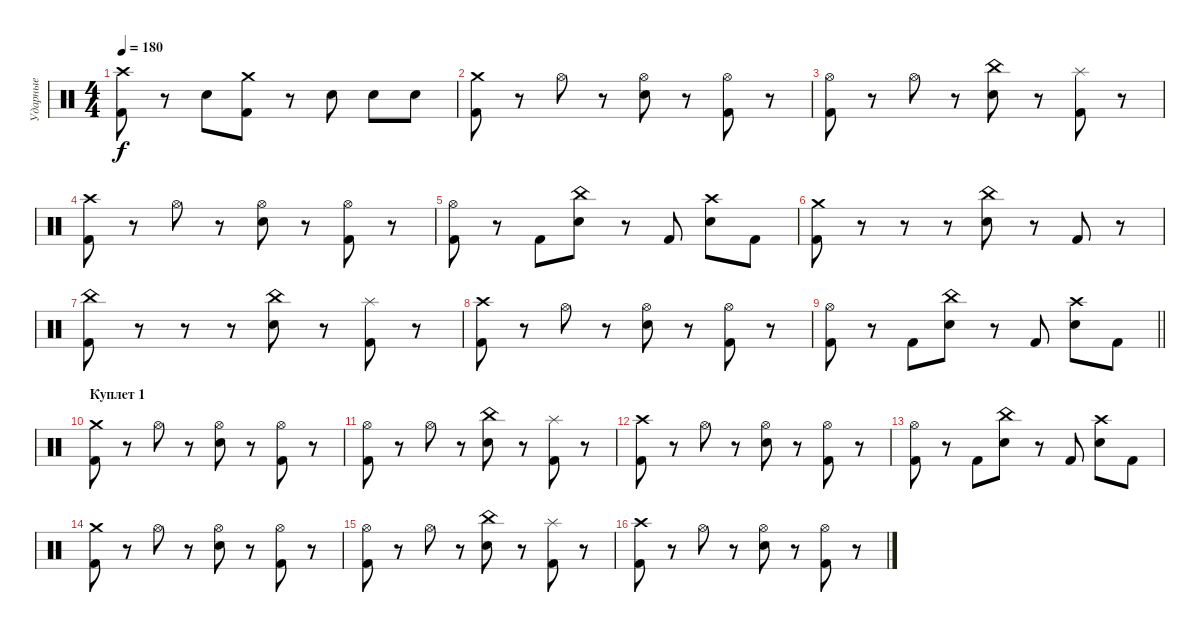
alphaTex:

\track ("Ударные" "Ударные") {instrument percussion}
\staff {score}
\articulation defaults
\ts (4 4)
\tempo 180
\clef neutral
\ks c
("Kick (hit) 2" "Crash high (hit)").8{dy f} r.8 "Electric Snare (hit)".8 ("Kick (hit) 2" "Crash medium (hit)").8 r.8 "Electric Snare (hit)".8 "Electric Snare (hit)".8 "Electric Snare (hit)".8 |
("Kick (hit) 2" "Crash medium (hit)").8 r.8 "Hi-Hat (open)".8 r.8 ("Electric Snare (hit)" "Hi-Hat (open)").8 r.8 ("Kick (hit) 2" "Hi-Hat (open)").8 r.8 |
("Kick (hit) 2" "Hi-Hat (open)").8 r.8 "Hi-Hat (open)".8 r.8 ("Electric Snare (hit)" "China (hit)").8 r.8 ("Kick (hit) 2" "Splash (hit)").8 r.8 |
("Kick (hit) 2" "Crash high (hit)").8 r.8 "Hi-Hat (open)".8 r.8 ("Electric Snare (hit)" "Hi-Hat (open)").8 r.8 ("Kick (hit) 2" "Hi-Hat (open)").8 r.8 |
("Kick (hit) 2" "Hi-Hat (open)").8 r.8 "Kick (hit) 2".8 ("Electric Snare (hit)" "China (hit)").8 r.8 "Kick (hit) 2".8 ("Electric Snare (hit)" "Crash high (hit)").8 "Kick (hit) 2".8 |
("Kick (hit) 2" "Crash medium (hit)").8 r.8 r.8 r.8 ("Electric Snare (hit)" "China (hit)").8 r.8 "Kick (hit) 2".8 r.8 |
("Kick (hit) 2" "China (hit)").8 r.8 r.8 r.8 ("Electric Snare (hit)" "China (hit)").8 r.8 ("Kick (hit) 2" "Splash (hit)").8 r.8 |
("Kick (hit) 2" "Crash high (hit)").8 r.8 "Hi-Hat (open)".8 r.8 ("Electric Snare (hit)" "Hi-Hat (open)").8 r.8 ("Kick (hit) 2" "Hi-Hat (open)").8 r.8 |
\barLineRight lightlight
("Kick (hit) 2" "Hi-Hat (open)").8 r.8 "Kick (hit) 2".8 ("Electric Snare (hit)" "China (hit)").8 r.8 "Kick (hit) 2".8 ("Electric Snare (hit)" "Crash high (hit)").8 "Kick (hit) 2".8 |
\section ("" "Куплет 1")
("Kick (hit) 2" "Crash medium (hit)").8 r.8 "Hi-Hat (open)".8 r.8 ("Electric Snare (hit)" "Hi-Hat (open)").8 r.8 ("Kick (hit) 2" "Hi-Hat (open)").8 r.8 |
("Kick (hit) 2" "Hi-Hat (open)").8 r.8 "Hi-Hat (open)".8 r.8 ("Electric Snare (hit)" "China (hit)").8 r.8 ("Kick (hit) 2" "Splash (hit)").8 r.8 |
("Kick (hit) 2" "Crash high (hit)").8 r.8 "Hi-Hat (open)".8 r.8 ("Electric Snare (hit)" "Hi-Hat (open)").8 r.8 ("Kick (hit) 2" "Hi-Hat (open)").8 r.8 |
("Kick (hit) 2" "Hi-Hat (open)").8 r.8 "Kick (hit) 2".8 ("Electric Snare (hit)" "China (hit)").8 r.8 "Kick (hit) 2".8 ("Electric Snare (hit)" "Crash high (hit)").8 "Kick (hit) 2".8 |
("Kick (hit) 2" "Crash medium (hit)").8 r.8 "Hi-Hat (open)".8 r.8 ("Electric Snare (hit)" "Hi-Hat (open)").8 r.8 ("Kick (hit) 2" "Hi-Hat (open)").8 r.8 |
("Kick (hit) 2" "Hi-Hat (open)").8 r.8 "Hi-Hat (open)".8 r.8 ("Electric Snare (hit)" "China (hit)").8 r.8 ("Kick (hit) 2" "Splash (hit)").8 r.8 |
("Kick (hit) 2" "Crash high (hit)").8 r.8 "Hi-Hat (open)".8 r.8 ("Electric Snare (hit)" "Hi-Hat (open)").8 r.8 ("Kick (hit) 2" "Hi-Hat (open)").8 r.8
